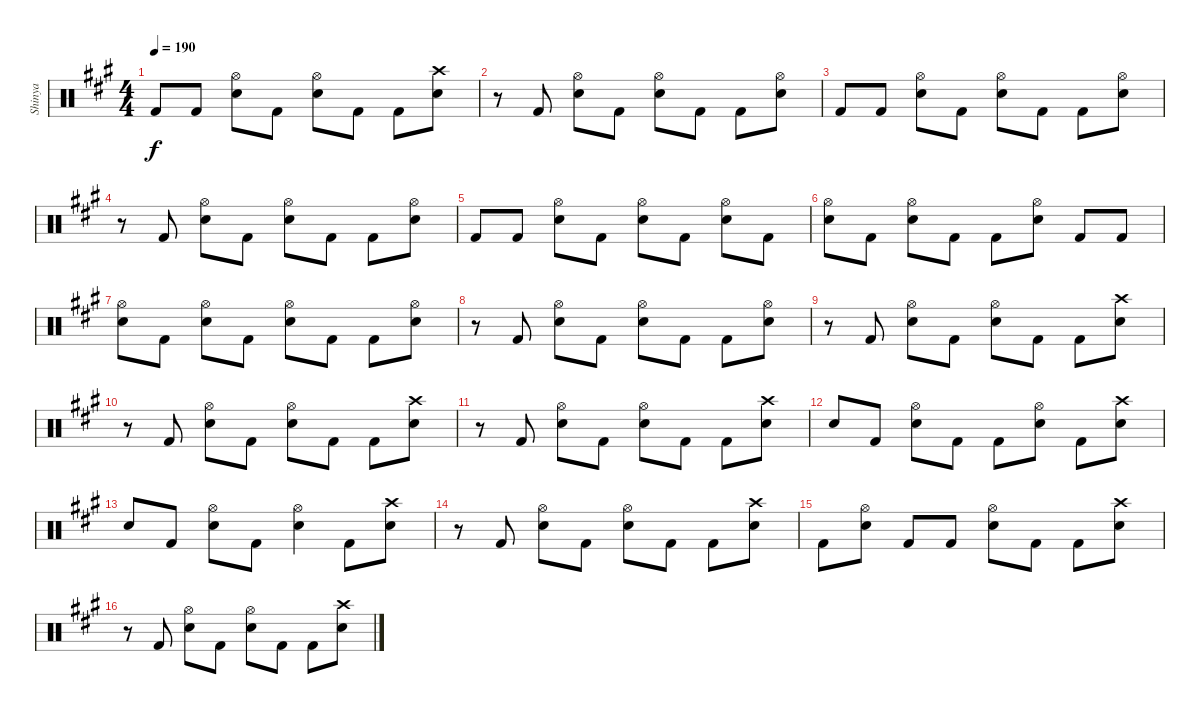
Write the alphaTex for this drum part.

\track ("Shinya" "Shinya") {instrument percussion}
\staff {score}
\articulation defaults
\ts (4 4)
\tempo 190
\clef neutral
\ks a "Kick (hit) 2".8{dy f} "Kick (hit) 2".8
("Hi-Hat (open)" "Snare (hit) 2").8 "Kick (hit) 2".8 ("Hi-Hat (open)" "Snare (hit) 2").8 "Kick (hit) 2".8 "Kick (hit) 2".8 ("Crash high (hit)" "Snare (hit) 2").8 |
r.8 "Kick (hit) 2".8 ("Hi-Hat (open)" "Snare (hit) 2").8 "Kick (hit) 2".8 ("Hi-Hat (open)" "Snare (hit) 2").8 "Kick (hit) 2".8 "Kick (hit) 2".8 ("Hi-Hat (open)" "Snare (hit) 2").8 |
"Kick (hit) 2".8 "Kick (hit) 2".8 ("Hi-Hat (open)" "Snare (hit) 2").8 "Kick (hit) 2".8 ("Hi-Hat (open)" "Snare (hit) 2").8 "Kick (hit) 2".8 "Kick (hit) 2".8 ("Hi-Hat (open)" "Snare (hit) 2").8 |
r.8 "Kick (hit) 2".8 ("Hi-Hat (open)" "Snare (hit) 2").8 "Kick (hit) 2".8 ("Hi-Hat (open)" "Snare (hit) 2").8 "Kick (hit) 2".8 "Kick (hit) 2".8 ("Hi-Hat (open)" "Snare (hit) 2").8 |
"Kick (hit) 2".8 "Kick (hit) 2".8 ("Hi-Hat (open)" "Snare (hit) 2").8 "Kick (hit) 2".8 ("Hi-Hat (open)" "Snare (hit) 2").8 "Kick (hit) 2".8 ("Hi-Hat (open)" "Snare (hit) 2").8 "Kick (hit) 2".8 |
("Hi-Hat (open)" "Snare (hit) 2").8 "Kick (hit) 2".8 ("Hi-Hat (open)" "Snare (hit) 2").8 "Kick (hit) 2".8 "Kick (hit) 2".8 ("Hi-Hat (open)" "Snare (hit) 2").8 "Kick (hit) 2".8 "Kick (hit) 2".8 |
("Hi-Hat (open)" "Snare (hit) 2").8 "Kick (hit) 2".8 ("Hi-Hat (open)" "Snare (hit) 2").8 "Kick (hit) 2".8 ("Hi-Hat (open)" "Snare (hit) 2").8 "Kick (hit) 2".8 "Kick (hit) 2".8 ("Hi-Hat (open)" "Snare (hit) 2").8 |
r.8 "Kick (hit) 2".8 ("Hi-Hat (open)" "Snare (hit) 2").8 "Kick (hit) 2".8 ("Hi-Hat (open)" "Snare (hit) 2").8 "Kick (hit) 2".8 "Kick (hit) 2".8 ("Hi-Hat (open)" "Snare (hit) 2").8 |
r.8 "Kick (hit) 2".8 ("Hi-Hat (open)" "Snare (hit) 2").8 "Kick (hit) 2".8 ("Hi-Hat (open)" "Snare (hit) 2").8 "Kick (hit) 2".8 "Kick (hit) 2".8 ("Crash high (hit)" "Snare (hit) 2").8 |
r.8 "Kick (hit) 2".8 ("Hi-Hat (open)" "Snare (hit) 2").8 "Kick (hit) 2".8 ("Hi-Hat (open)" "Snare (hit) 2").8 "Kick (hit) 2".8 "Kick (hit) 2".8 ("Crash high (hit)" "Snare (hit) 2").8 |
r.8 "Kick (hit) 2".8 ("Hi-Hat (open)" "Snare (hit) 2").8 "Kick (hit) 2".8 ("Hi-Hat (open)" "Snare (hit) 2").8 "Kick (hit) 2".8 "Kick (hit) 2".8 ("Crash high (hit)" "Snare (hit) 2").8 |
"Snare (hit) 2".8 "Kick (hit) 2".8 ("Hi-Hat (open)" "Snare (hit) 2").8 "Kick (hit) 2".8 "Kick (hit) 2".8 ("Hi-Hat (open)" "Snare (hit) 2").8 "Kick (hit) 2".8 ("Crash high (hit)" "Snare (hit) 2").8 |
"Snare (hit) 2".8 "Kick (hit) 2".8 ("Hi-Hat (open)" "Snare (hit) 2").8 "Kick (hit) 2".8 ("Hi-Hat (open)" "Snare (hit) 2").4 "Kick (hit) 2".8 ("Crash high (hit)" "Snare (hit) 2").8 |
r.8 "Kick (hit) 2".8 ("Hi-Hat (open)" "Snare (hit) 2").8 "Kick (hit) 2".8 ("Hi-Hat (open)" "Snare (hit) 2").8 "Kick (hit) 2".8 "Kick (hit) 2".8 ("Crash high (hit)" "Snare (hit) 2").8 |
"Kick (hit) 2".8 ("Hi-Hat (open)" "Snare (hit) 2").8 "Kick (hit) 2".8 "Kick (hit) 2".8 ("Hi-Hat (open)" "Snare (hit) 2").8 "Kick (hit) 2".8 "Kick (hit) 2".8 ("Crash high (hit)" "Snare (hit) 2").8 |
r.8 "Kick (hit) 2".8 ("Hi-Hat (open)" "Snare (hit) 2").8 "Kick (hit) 2".8 ("Hi-Hat (open)" "Snare (hit) 2").8 "Kick (hit) 2".8 "Kick (hit) 2".8 ("Crash high (hit)" "Snare (hit) 2").8
